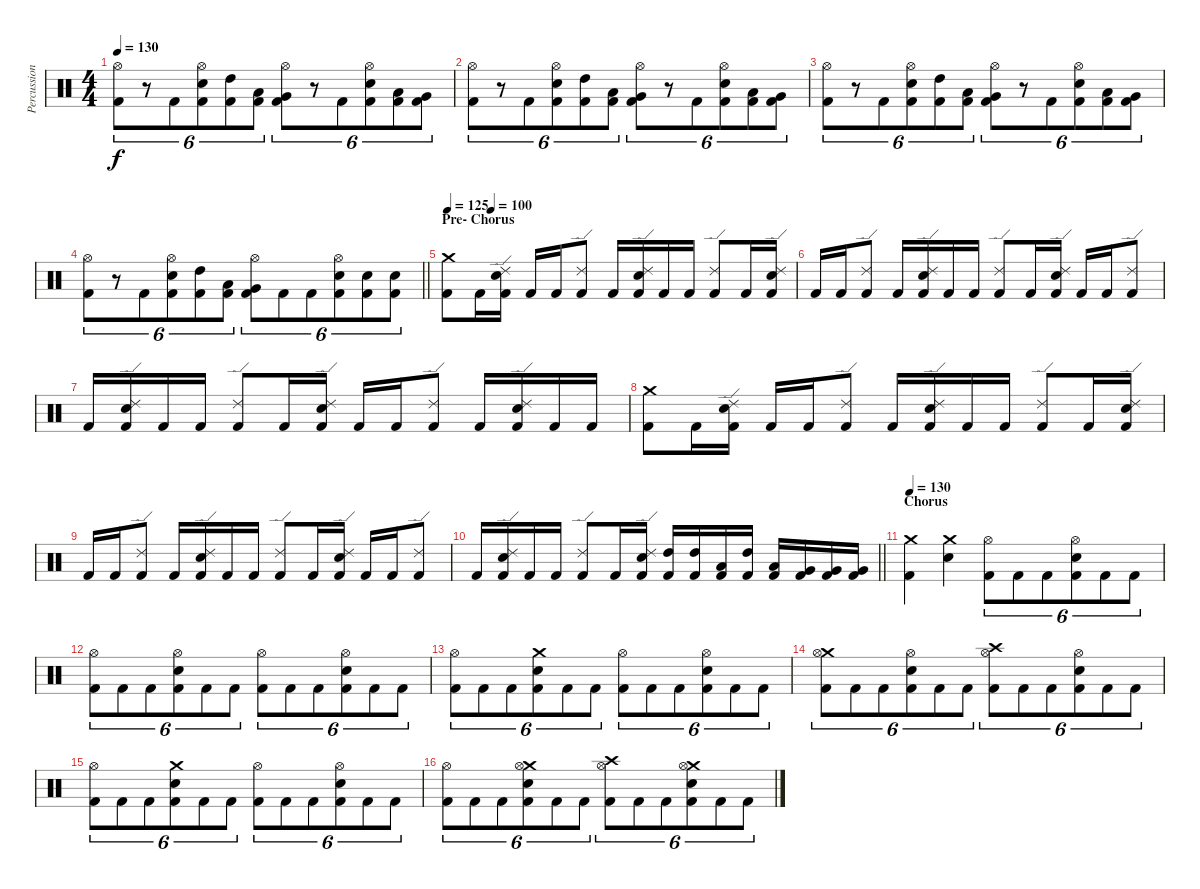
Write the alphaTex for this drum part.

\track ("Percussion" "Percussion") {instrument percussion}
\staff {score}
\articulation defaults
\ts (4 4)
\tempo 130
\clef neutral
\ks c
("Hi-Hat (open)" "Kick (hit) 2").8{tu (6 4) dy f} r.8{tu (6 4)} "Kick (hit) 2".8{tu (6 4)} ("Hi-Hat (open)" "Snare (hit) 2" "Kick (hit) 2").8{tu (6 4)} ("High Tom (hit)" "Kick (hit) 2").8{tu (6 4)} ("Low Tom (hit)" "Kick (hit) 2").8{tu (6 4)} ("Hi-Hat (open)" "Very Low Tom (hit)" "Kick (hit) 2").8{tu (6 4)} r.8{tu (6 4)} "Kick (hit) 2".8{tu (6 4)} ("Hi-Hat (open)" "Snare (hit) 2" "Kick (hit) 2").8{tu (6 4)} ("Low Tom (hit)" "Kick (hit) 2").8{tu (6 4)} ("Very Low Tom (hit)" "Kick (hit) 2").8{tu (6 4)} |
("Hi-Hat (open)" "Kick (hit) 2").8{tu (6 4)} r.8{tu (6 4)} "Kick (hit) 2".8{tu (6 4)} ("Hi-Hat (open)" "Snare (hit) 2" "Kick (hit) 2").8{tu (6 4)} ("High Tom (hit)" "Kick (hit) 2").8{tu (6 4)} ("Low Tom (hit)" "Kick (hit) 2").8{tu (6 4)} ("Hi-Hat (open)" "Very Low Tom (hit)" "Kick (hit) 2").8{tu (6 4)} r.8{tu (6 4)} "Kick (hit) 2".8{tu (6 4)} ("Hi-Hat (open)" "Snare (hit) 2" "Kick (hit) 2").8{tu (6 4)} ("Low Tom (hit)" "Kick (hit) 2").8{tu (6 4)} ("Very Low Tom (hit)" "Kick (hit) 2").8{tu (6 4)} |
("Hi-Hat (open)" "Kick (hit) 2").8{tu (6 4)} r.8{tu (6 4)} "Kick (hit) 2".8{tu (6 4)} ("Hi-Hat (open)" "Snare (hit) 2" "Kick (hit) 2").8{tu (6 4)} ("High Tom (hit)" "Kick (hit) 2").8{tu (6 4)} ("Low Tom (hit)" "Kick (hit) 2").8{tu (6 4)} ("Hi-Hat (open)" "Very Low Tom (hit)" "Kick (hit) 2").8{tu (6 4)} r.8{tu (6 4)} "Kick (hit) 2".8{tu (6 4)} ("Hi-Hat (open)" "Snare (hit) 2" "Kick (hit) 2").8{tu (6 4)} ("Low Tom (hit)" "Kick (hit) 2").8{tu (6 4)} ("Very Low Tom (hit)" "Kick (hit) 2").8{tu (6 4)} |
\barLineRight lightlight
("Hi-Hat (open)" "Kick (hit) 2").8{tu (6 4)} r.8{tu (6 4)} "Kick (hit) 2".8{tu (6 4)} ("Hi-Hat (open)" "Snare (hit) 2" "Kick (hit) 2").8{tu (6 4)} ("High Tom (hit)" "Kick (hit) 2").8{tu (6 4)} ("Low Tom (hit)" "Kick (hit) 2").8{tu (6 4)} ("Hi-Hat (open)" "Very Low Tom (hit)" "Kick (hit) 2").8{tu (6 4)} "Kick (hit) 2".8{tu (6 4)} "Kick (hit) 2".8{tu (6 4)} ("Hi-Hat (open)" "Snare (hit) 2" "Kick (hit) 2").8{tu (6 4)} ("Snare (hit) 2" "Kick (hit) 2").8{tu (6 4)} ("Snare (hit) 2" "Kick (hit) 2").8{tu (6 4)} |
\section ("" "Pre- Chorus")
\tempo 110
\tempo (100 0.125)
\tempo 125
("Crash medium (hit)" "Kick (hit) 2").8 "Kick (hit) 2".16 ("Ride (edge) 2" "Snare (hit) 2" "Kick (hit) 2").16 "Kick (hit) 2".16 "Kick (hit) 2".16 ("Ride (edge) 2" "Kick (hit) 2").8 "Kick (hit) 2".16 ("Ride (edge) 2" "Snare (hit) 2" "Kick (hit) 2").16 "Kick (hit) 2".16 "Kick (hit) 2".16 ("Ride (edge) 2" "Kick (hit) 2").8 "Kick (hit) 2".16 ("Ride (edge) 2" "Snare (hit) 2" "Kick (hit) 2").16 |
"Kick (hit) 2".16 "Kick (hit) 2".16 ("Ride (edge) 2" "Kick (hit) 2").8 "Kick (hit) 2".16 ("Ride (edge) 2" "Snare (hit) 2" "Kick (hit) 2").16 "Kick (hit) 2".16 "Kick (hit) 2".16 ("Ride (edge) 2" "Kick (hit) 2").8 "Kick (hit) 2".16 ("Ride (edge) 2" "Snare (hit) 2" "Kick (hit) 2").16 "Kick (hit) 2".16 "Kick (hit) 2".16 ("Ride (edge) 2" "Kick (hit) 2").8 |
"Kick (hit) 2".16 ("Ride (edge) 2" "Snare (hit) 2" "Kick (hit) 2").16 "Kick (hit) 2".16 "Kick (hit) 2".16 ("Ride (edge) 2" "Kick (hit) 2").8 "Kick (hit) 2".16 ("Ride (edge) 2" "Snare (hit) 2" "Kick (hit) 2").16 "Kick (hit) 2".16 "Kick (hit) 2".16 ("Ride (edge) 2" "Kick (hit) 2").8 "Kick (hit) 2".16 ("Ride (edge) 2" "Snare (hit) 2" "Kick (hit) 2").16 "Kick (hit) 2".16 "Kick (hit) 2".16 |
("Crash medium (hit)" "Kick (hit) 2").8 "Kick (hit) 2".16 ("Ride (edge) 2" "Snare (hit) 2" "Kick (hit) 2").16 "Kick (hit) 2".16 "Kick (hit) 2".16 ("Ride (edge) 2" "Kick (hit) 2").8 "Kick (hit) 2".16 ("Ride (edge) 2" "Snare (hit) 2" "Kick (hit) 2").16 "Kick (hit) 2".16 "Kick (hit) 2".16 ("Ride (edge) 2" "Kick (hit) 2").8 "Kick (hit) 2".16 ("Ride (edge) 2" "Snare (hit) 2" "Kick (hit) 2").16 |
"Kick (hit) 2".16 "Kick (hit) 2".16 ("Ride (edge) 2" "Kick (hit) 2").8 "Kick (hit) 2".16 ("Ride (edge) 2" "Snare (hit) 2" "Kick (hit) 2").16 "Kick (hit) 2".16 "Kick (hit) 2".16 ("Ride (edge) 2" "Kick (hit) 2").8 "Kick (hit) 2".16 ("Ride (edge) 2" "Snare (hit) 2" "Kick (hit) 2").16 "Kick (hit) 2".16 "Kick (hit) 2".16 ("Ride (edge) 2" "Kick (hit) 2").8 |
\barLineRight lightlight "Kick (hit) 2".16
("Ride (edge) 2" "Snare (hit) 2" "Kick (hit) 2").16 "Kick (hit) 2".16 "Kick (hit) 2".16 ("Ride (edge) 2" "Kick (hit) 2").8 "Kick (hit) 2".16 ("Ride (edge) 2" "Snare (hit) 2" "Kick (hit) 2").16 ("High Tom (hit)" "Kick (hit) 2").16 ("High Tom (hit)" "Kick (hit) 2").16 ("Low Tom (hit)" "Kick (hit) 2").16 ("High Tom (hit)" "Kick (hit) 2").16 ("Low Tom (hit)" "Kick (hit) 2").16 ("Very Low Tom (hit)" "Kick (hit) 2").16 ("Very Low Tom (hit)" "Kick (hit) 2").16 ("Very Low Tom (hit)" "Kick (hit) 2").16 |
\section ("" "Chorus")
\tempo 130
("Crash medium (hit)" "Kick (hit) 2").4 ("Crash medium (hit)" "Snare (hit) 2").4 ("Hi-Hat (open)" "Kick (hit) 2").8{tu (6 4)} "Kick (hit) 2".8{tu (6 4)} "Kick (hit) 2".8{tu (6 4)} ("Hi-Hat (open)" "Snare (hit) 2" "Kick (hit) 2").8{tu (6 4)} "Kick (hit) 2".8{tu (6 4)} "Kick (hit) 2".8{tu (6 4)} |
("Hi-Hat (open)" "Kick (hit) 2").8{tu (6 4)} "Kick (hit) 2".8{tu (6 4)} "Kick (hit) 2".8{tu (6 4)} ("Hi-Hat (open)" "Snare (hit) 2" "Kick (hit) 2").8{tu (6 4)} "Kick (hit) 2".8{tu (6 4)} "Kick (hit) 2".8{tu (6 4)} ("Hi-Hat (open)" "Kick (hit) 2").8{tu (6 4)} "Kick (hit) 2".8{tu (6 4)} "Kick (hit) 2".8{tu (6 4)} ("Hi-Hat (open)" "Snare (hit) 2" "Kick (hit) 2").8{tu (6 4)} "Kick (hit) 2".8{tu (6 4)} "Kick (hit) 2".8{tu (6 4)} |
("Hi-Hat (open)" "Kick (hit) 2").8{tu (6 4)} "Kick (hit) 2".8{tu (6 4)} "Kick (hit) 2".8{tu (6 4)} ("Crash medium (hit)" "Snare (hit) 2" "Kick (hit) 2").8{tu (6 4)} "Kick (hit) 2".8{tu (6 4)} "Kick (hit) 2".8{tu (6 4)} ("Hi-Hat (open)" "Kick (hit) 2").8{tu (6 4)} "Kick (hit) 2".8{tu (6 4)} "Kick (hit) 2".8{tu (6 4)} ("Hi-Hat (open)" "Snare (hit) 2" "Kick (hit) 2").8{tu (6 4)} "Kick (hit) 2".8{tu (6 4)} "Kick (hit) 2".8{tu (6 4)} |
("Crash medium (hit)" "Hi-Hat (open)" "Kick (hit) 2").8{tu (6 4)} "Kick (hit) 2".8{tu (6 4)} "Kick (hit) 2".8{tu (6 4)} ("Hi-Hat (open)" "Snare (hit) 2" "Kick (hit) 2").8{tu (6 4)} "Kick (hit) 2".8{tu (6 4)} "Kick (hit) 2".8{tu (6 4)} ("Crash high (hit)" "Hi-Hat (open)" "Kick (hit) 2").8{tu (6 4)} "Kick (hit) 2".8{tu (6 4)} "Kick (hit) 2".8{tu (6 4)} ("Hi-Hat (open)" "Snare (hit) 2" "Kick (hit) 2").8{tu (6 4)} "Kick (hit) 2".8{tu (6 4)} "Kick (hit) 2".8{tu (6 4)} |
("Hi-Hat (open)" "Kick (hit) 2").8{tu (6 4)} "Kick (hit) 2".8{tu (6 4)} "Kick (hit) 2".8{tu (6 4)} ("Crash medium (hit)" "Snare (hit) 2" "Kick (hit) 2").8{tu (6 4)} "Kick (hit) 2".8{tu (6 4)} "Kick (hit) 2".8{tu (6 4)} ("Hi-Hat (open)" "Kick (hit) 2").8{tu (6 4)} "Kick (hit) 2".8{tu (6 4)} "Kick (hit) 2".8{tu (6 4)} ("Hi-Hat (open)" "Snare (hit) 2" "Kick (hit) 2").8{tu (6 4)} "Kick (hit) 2".8{tu (6 4)} "Kick (hit) 2".8{tu (6 4)} |
("Hi-Hat (open)" "Kick (hit) 2").8{tu (6 4)} "Kick (hit) 2".8{tu (6 4)} "Kick (hit) 2".8{tu (6 4)} ("Crash medium (hit)" "Hi-Hat (open)" "Snare (hit) 2" "Kick (hit) 2").8{tu (6 4)} "Kick (hit) 2".8{tu (6 4)} "Kick (hit) 2".8{tu (6 4)} ("Crash high (hit)" "Hi-Hat (open)" "Kick (hit) 2").8{tu (6 4)} "Kick (hit) 2".8{tu (6 4)} "Kick (hit) 2".8{tu (6 4)} ("Crash medium (hit)" "Hi-Hat (open)" "Snare (hit) 2" "Kick (hit) 2").8{tu (6 4)} "Kick (hit) 2".8{tu (6 4)} "Kick (hit) 2".8{tu (6 4)}
